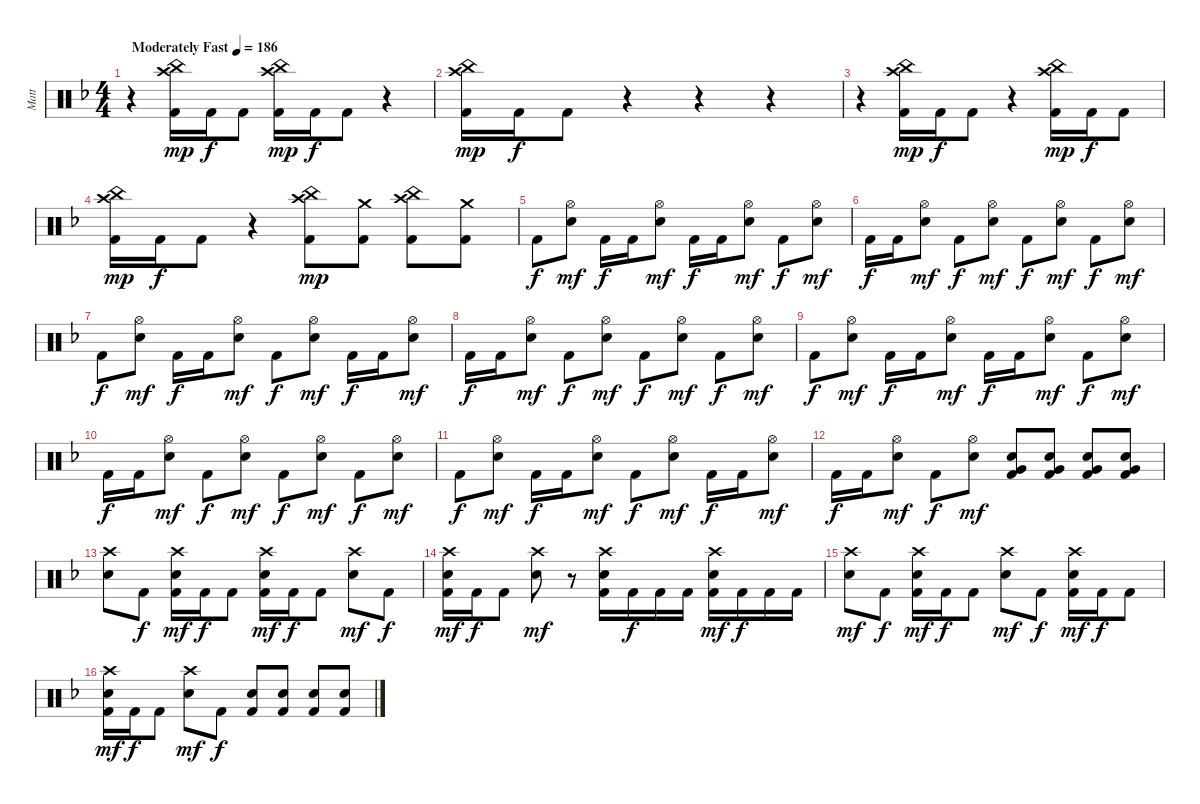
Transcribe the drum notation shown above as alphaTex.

\track ("Matt" "Matt") {instrument percussion}
\staff {score}
\articulation defaults
\ts (4 4)
\tempo (186 "Moderately Fast")
\clef neutral
\ks f
r.4{dy mp} ("Crash high (hit)" "China (hit)" "Kick (hit) 2").16 "Kick (hit) 2".16{dy f} "Kick (hit) 2".8 ("Crash high (hit)" "China (hit)" "Kick (hit) 2").16{dy mp} "Kick (hit) 2".16{dy f} "Kick (hit) 2".8 r.4 |
("Crash high (hit)" "China (hit)" "Kick (hit) 2").16{dy mp} "Kick (hit) 2".16{dy f} "Kick (hit) 2".8 r.4 r.4 r.4 |
r.4 ("Crash high (hit)" "China (hit)" "Kick (hit) 2").16{dy mp} "Kick (hit) 2".16{dy f} "Kick (hit) 2".8 r.4 ("Crash high (hit)" "China (hit)" "Kick (hit) 2").16{dy mp} "Kick (hit) 2".16{dy f} "Kick (hit) 2".8 |
("Crash high (hit)" "China (hit)" "Kick (hit) 2").16{dy mp} "Kick (hit) 2".16{dy f} "Kick (hit) 2".8 r.4 ("Crash high (hit)" "China (hit)" "Kick (hit) 2").8{dy mp} ("Crash medium (hit)" "Kick (hit) 2").8 ("Crash high (hit)" "China (hit)" "Kick (hit) 2").8 ("Crash medium (hit)" "Kick (hit) 2").8 |
"Kick (hit) 2".8{dy f} ("Hi-Hat (open)" "Electric Snare (hit)").8{dy mf} "Kick (hit) 2".16{dy f} "Kick (hit) 2".16 ("Hi-Hat (open)" "Electric Snare (hit)").8{dy mf} "Kick (hit) 2".16{dy f} "Kick (hit) 2".16 ("Hi-Hat (open)" "Electric Snare (hit)").8{dy mf} "Kick (hit) 2".8{dy f} ("Hi-Hat (open)" "Electric Snare (hit)").8{dy mf} |
"Kick (hit) 2".16{dy f} "Kick (hit) 2".16 ("Hi-Hat (open)" "Electric Snare (hit)").8{dy mf} "Kick (hit) 2".8{dy f} ("Hi-Hat (open)" "Electric Snare (hit)").8{dy mf} "Kick (hit) 2".8{dy f} ("Hi-Hat (open)" "Electric Snare (hit)").8{dy mf} "Kick (hit) 2".8{dy f} ("Hi-Hat (open)" "Electric Snare (hit)").8{dy mf} |
"Kick (hit) 2".8{dy f} ("Hi-Hat (open)" "Electric Snare (hit)").8{dy mf} "Kick (hit) 2".16{dy f} "Kick (hit) 2".16 ("Hi-Hat (open)" "Electric Snare (hit)").8{dy mf} "Kick (hit) 2".8{dy f} ("Hi-Hat (open)" "Electric Snare (hit)").8{dy mf} "Kick (hit) 2".16{dy f} "Kick (hit) 2".16 ("Hi-Hat (open)" "Electric Snare (hit)").8{dy mf} |
"Kick (hit) 2".16{dy f} "Kick (hit) 2".16 ("Hi-Hat (open)" "Electric Snare (hit)").8{dy mf} "Kick (hit) 2".8{dy f} ("Hi-Hat (open)" "Electric Snare (hit)").8{dy mf} "Kick (hit) 2".8{dy f} ("Hi-Hat (open)" "Electric Snare (hit)").8{dy mf} "Kick (hit) 2".8{dy f} ("Hi-Hat (open)" "Electric Snare (hit)").8{dy mf} |
"Kick (hit) 2".8{dy f} ("Hi-Hat (open)" "Electric Snare (hit)").8{dy mf} "Kick (hit) 2".16{dy f} "Kick (hit) 2".16 ("Hi-Hat (open)" "Electric Snare (hit)").8{dy mf} "Kick (hit) 2".16{dy f} "Kick (hit) 2".16 ("Hi-Hat (open)" "Electric Snare (hit)").8{dy mf} "Kick (hit) 2".8{dy f} ("Hi-Hat (open)" "Electric Snare (hit)").8{dy mf} |
"Kick (hit) 2".16{dy f} "Kick (hit) 2".16 ("Hi-Hat (open)" "Electric Snare (hit)").8{dy mf} "Kick (hit) 2".8{dy f} ("Hi-Hat (open)" "Electric Snare (hit)").8{dy mf} "Kick (hit) 2".8{dy f} ("Hi-Hat (open)" "Electric Snare (hit)").8{dy mf} "Kick (hit) 2".8{dy f} ("Hi-Hat (open)" "Electric Snare (hit)").8{dy mf} |
"Kick (hit) 2".8{dy f} ("Hi-Hat (open)" "Electric Snare (hit)").8{dy mf} "Kick (hit) 2".16{dy f} "Kick (hit) 2".16 ("Hi-Hat (open)" "Electric Snare (hit)").8{dy mf} "Kick (hit) 2".8{dy f} ("Hi-Hat (open)" "Electric Snare (hit)").8{dy mf} "Kick (hit) 2".16{dy f} "Kick (hit) 2".16 ("Hi-Hat (open)" "Electric Snare (hit)").8{dy mf} |
"Kick (hit) 2".16{dy f} "Kick (hit) 2".16 ("Hi-Hat (open)" "Electric Snare (hit)").8{dy mf} "Kick (hit) 2".8{dy f} ("Hi-Hat (open)" "Electric Snare (hit)").8{dy mf} ("Very Low Tom (hit)" "Electric Snare (hit)" "Kick (hit) 2").8 ("Very Low Tom (hit)" "Electric Snare (hit)" "Kick (hit) 2").8 ("Very Low Tom (hit)" "Electric Snare (hit)" "Kick (hit) 2").8 ("Very Low Tom (hit)" "Electric Snare (hit)" "Kick (hit) 2").8 |
("Crash high (hit)" "Electric Snare (hit)").8 "Kick (hit) 2".8{dy f} ("Crash high (hit)" "Electric Snare (hit)" "Kick (hit) 2").16{dy mf} "Kick (hit) 2".16{dy f} "Kick (hit) 2".8 ("Crash high (hit)" "Electric Snare (hit)" "Kick (hit) 2").16{dy mf} "Kick (hit) 2".16{dy f} "Kick (hit) 2".8 ("Crash high (hit)" "Electric Snare (hit)").8{dy mf} "Kick (hit) 2".8{dy f} |
("Crash high (hit)" "Electric Snare (hit)" "Kick (hit) 2").16{dy mf} "Kick (hit) 2".16{dy f} "Kick (hit) 2".8 ("Crash high (hit)" "Electric Snare (hit)").8{dy mf} r.8 ("Crash high (hit)" "Electric Snare (hit)" "Kick (hit) 2").16 "Kick (hit) 2".16{dy f} "Kick (hit) 2".16 "Kick (hit) 2".16 ("Crash high (hit)" "Electric Snare (hit)" "Kick (hit) 2").16{dy mf} "Kick (hit) 2".16{dy f} "Kick (hit) 2".16 "Kick (hit) 2".16 |
("Crash high (hit)" "Electric Snare (hit)").8{dy mf} "Kick (hit) 2".8{dy f} ("Crash high (hit)" "Electric Snare (hit)" "Kick (hit) 2").16{dy mf} "Kick (hit) 2".16{dy f} "Kick (hit) 2".8 ("Crash high (hit)" "Electric Snare (hit)").8{dy mf} "Kick (hit) 2".8{dy f} ("Crash high (hit)" "Electric Snare (hit)" "Kick (hit) 2").16{dy mf} "Kick (hit) 2".16{dy f} "Kick (hit) 2".8 |
("Crash high (hit)" "Electric Snare (hit)" "Kick (hit) 2").16{dy mf} "Kick (hit) 2".16{dy f} "Kick (hit) 2".8 ("Crash high (hit)" "Electric Snare (hit)").8{dy mf} "Kick (hit) 2".8{dy f} ("Electric Snare (hit)" "Kick (hit) 2").8 ("Electric Snare (hit)" "Kick (hit) 2").8 ("Electric Snare (hit)" "Kick (hit) 2").8 ("Electric Snare (hit)" "Kick (hit) 2").8
